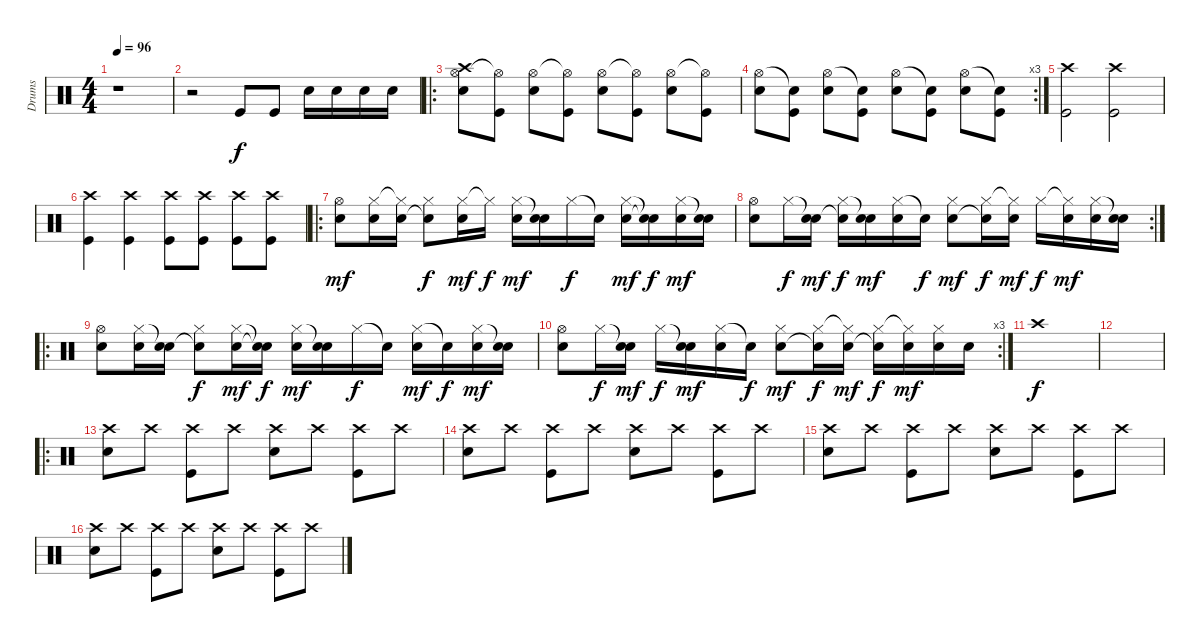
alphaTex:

\track ("Drums" "Drums") {instrument percussion}
\staff {score}
\articulation defaults
\ts (4 4)
\tempo 96
\clef neutral
\ks c
r.1{dy f} |
r.2 "Kick (hit)".8 "Kick (hit)".8 "Electric Snare (hit)".16 "Electric Snare (hit)".16 "Electric Snare (hit)".16 "Electric Snare (hit)".16 |
\ro
("Hi-Hat (open)" "Crash high (hit)" "Electric Snare (hit)").8 ("Hi-Hat (open)"{t} "Kick (hit)").8 ("Hi-Hat (open)" "Electric Snare (hit)").8 ("Hi-Hat (open)"{t} "Kick (hit)").8 ("Hi-Hat (open)" "Electric Snare (hit)").8 ("Hi-Hat (open)"{t} "Kick (hit)").8 ("Hi-Hat (open)" "Electric Snare (hit)").8 ("Hi-Hat (open)"{t} "Kick (hit)").8 |
\rc 3
("Hi-Hat (open)" "Electric Snare (hit)").8 ("Snare (hit)"{t} "Kick (hit)").8 ("Hi-Hat (open)" "Electric Snare (hit)").8 ("Snare (hit)"{t} "Kick (hit)").8 ("Hi-Hat (open)" "Electric Snare (hit)").8 ("Snare (hit)"{t} "Kick (hit)").8 ("Hi-Hat (open)" "Electric Snare (hit)").8 ("Snare (hit)"{t} "Kick (hit)").8 |
("Crash high (hit)" "Kick (hit)").2 ("Crash high (hit)" "Kick (hit)").2 |
("Crash high (hit)" "Kick (hit)").4 ("Crash high (hit)" "Kick (hit)").4 ("Crash high (hit)" "Kick (hit)").8 ("Crash high (hit)" "Kick (hit)").8 ("Crash high (hit)" "Kick (hit)").8 ("Crash high (hit)" "Kick (hit)").8 |
\ro
("Hi-Hat (open)" "Electric Snare (hit)").8{dy mf} ("Hi-Hat (closed)" "Electric Snare (hit)").16 ("Hi-Hat (closed)"{t} "Electric Snare (hit)").16 ("Hi-Hat (closed)" "Snare (hit)"{t}).8{dy f} ("Hi-Hat (closed)" "Electric Snare (hit)").16{dy mf} "Hi-Hat (closed)"{t}.16{dy f} ("Hi-Hat (closed)" "Electric Snare (hit)").16{dy mf} ("Snare (hit)"{t} "Electric Snare (hit)").16 "Hi-Hat (closed)".16{dy f} "Snare (hit)"{t}.16 ("Hi-Hat (closed)" "Electric Snare (hit)").16{dy mf} ("Snare (hit)"{t} "Snare (hit)"{t}).16{dy f} ("Hi-Hat (closed)" "Electric Snare (hit)").16{dy mf} ("Snare (hit)"{t} "Electric Snare (hit)").16 |
\rc 2
("Hi-Hat (open)" "Electric Snare (hit)").8 "Hi-Hat (closed)".16{dy f} ("Snare (hit)"{t} "Electric Snare (hit)").16{dy mf} ("Hi-Hat (closed)" "Snare (hit)"{t}).16{dy f} ("Snare (hit)"{t} "Electric Snare (hit)").16{dy mf} ("Hi-Hat (closed)" "Electric Snare (hit)").16 "Snare (hit)"{t}.16{dy f} ("Hi-Hat (closed)" "Electric Snare (hit)").8{dy mf} ("Hi-Hat (closed)" "Electric Snare (hit)"{t}).16{dy f} ("Hi-Hat (closed)"{t} "Electric Snare (hit)").16{dy mf} "Hi-Hat (closed)".16{dy f} ("Hi-Hat (closed)"{t} "Electric Snare (hit)").16{dy mf} ("Hi-Hat (closed)" "Electric Snare (hit)").16 ("Snare (hit)"{t} "Electric Snare (hit)").16 |
\ro
("Hi-Hat (open)" "Electric Snare (hit)").8 ("Hi-Hat (closed)" "Electric Snare (hit)").16 ("Snare (hit)"{t} "Electric Snare (hit)").16 ("Hi-Hat (closed)" "Snare (hit)"{t}).8{dy f} ("Hi-Hat (closed)" "Electric Snare (hit)").16{dy mf} ("Snare (hit)"{t} "Snare (hit)"{t}).16{dy f} ("Hi-Hat (closed)" "Electric Snare (hit)").16{dy mf} ("Snare (hit)"{t} "Electric Snare (hit)").16 "Hi-Hat (closed)".16{dy f} "Snare (hit)"{t}.16 ("Hi-Hat (closed)" "Electric Snare (hit)").16{dy mf} "Snare (hit)"{t}.16{dy f} ("Hi-Hat (closed)" "Electric Snare (hit)").16{dy mf} ("Snare (hit)"{t} "Electric Snare (hit)").16 |
\rc 3
("Hi-Hat (open)" "Electric Snare (hit)").8 "Hi-Hat (closed)".16{dy f} ("Snare (hit)"{t} "Electric Snare (hit)").16{dy mf} "Hi-Hat (closed)".16{dy f} ("Snare (hit)"{t} "Electric Snare (hit)").16{dy mf} ("Hi-Hat (closed)" "Electric Snare (hit)").16 "Snare (hit)"{t}.16{dy f} ("Hi-Hat (closed)" "Electric Snare (hit)").8{dy mf} ("Hi-Hat (closed)" "Electric Snare (hit)"{t}).16{dy f} ("Hi-Hat (closed)"{t} "Electric Snare (hit)").16{dy mf} ("Hi-Hat (closed)" "Electric Snare (hit)"{t}).16{dy f} ("Hi-Hat (closed)"{t} "Electric Snare (hit)").16{dy mf} ("Hi-Hat (closed)" "Electric Snare (hit)").16 "Electric Snare (hit)".16 |
"Crash high (hit)".1{dy f} |
|
\ro
("Crash high (hit)" "Electric Snare (hit)").8 "Crash high (hit)".8 ("Crash high (hit)" "Kick (hit)").8 "Crash high (hit)".8 ("Crash high (hit)" "Electric Snare (hit)").8 "Crash high (hit)".8 ("Crash high (hit)" "Kick (hit)").8 "Crash high (hit)".8 |
("Crash high (hit)" "Electric Snare (hit)").8 "Crash high (hit)".8 ("Crash high (hit)" "Kick (hit)").8 "Crash high (hit)".8 ("Crash high (hit)" "Electric Snare (hit)").8 "Crash high (hit)".8 ("Crash high (hit)" "Kick (hit)").8 "Crash high (hit)".8 |
("Crash high (hit)" "Electric Snare (hit)").8 "Crash high (hit)".8 ("Crash high (hit)" "Kick (hit)").8 "Crash high (hit)".8 ("Crash high (hit)" "Electric Snare (hit)").8 "Crash high (hit)".8 ("Crash high (hit)" "Kick (hit)").8 "Crash high (hit)".8 |
("Crash high (hit)" "Electric Snare (hit)").8 "Crash high (hit)".8 ("Crash high (hit)" "Kick (hit)").8 "Crash high (hit)".8 ("Crash high (hit)" "Electric Snare (hit)").8 "Crash high (hit)".8 ("Crash high (hit)" "Kick (hit)").8 "Crash high (hit)".8
